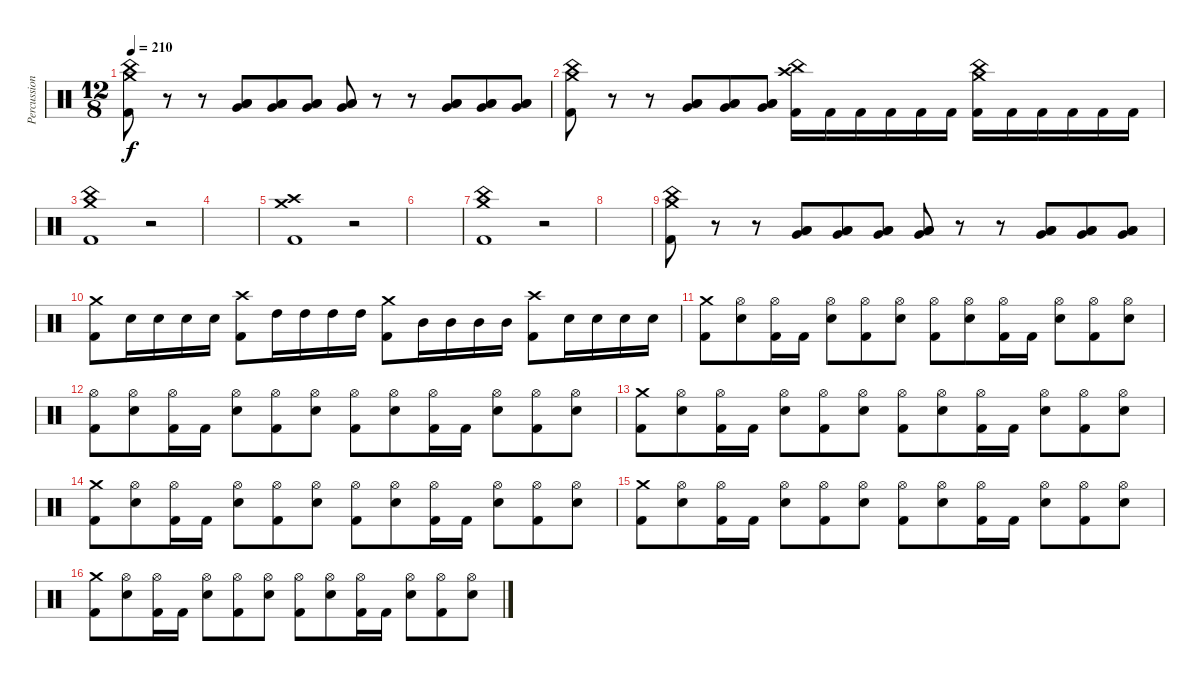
\track ("Percussion" "Percussion") {instrument percussion}
\staff {score}
\articulation defaults
\ts (12 8)
\tempo 210
\clef neutral
\ks c
("China (hit)" "Crash medium (hit)" "Kick (hit) 2").8{dy f} r.8 r.8 ("Low Tom (hit)" "Low Floor Tom (hit)" "Very Low Tom (hit)").8 ("Low Tom (hit)" "Low Floor Tom (hit)" "Very Low Tom (hit)").8 ("Low Tom (hit)" "Low Floor Tom (hit)" "Very Low Tom (hit)").8 ("Low Tom (hit)" "Low Floor Tom (hit)" "Very Low Tom (hit)").8 r.8 r.8 ("Low Tom (hit)" "Low Floor Tom (hit)" "Very Low Tom (hit)").8 ("Low Tom (hit)" "Low Floor Tom (hit)" "Very Low Tom (hit)").8 ("Low Tom (hit)" "Low Floor Tom (hit)" "Very Low Tom (hit)").8 |
("China (hit)" "Crash medium (hit)" "Kick (hit) 2").8 r.8 r.8 ("Low Tom (hit)" "Low Floor Tom (hit)" "Very Low Tom (hit)").8 ("Low Tom (hit)" "Low Floor Tom (hit)" "Very Low Tom (hit)").8 ("Low Tom (hit)" "Low Floor Tom (hit)" "Very Low Tom (hit)").8 ("Crash high (hit)" "China (hit)" "Kick (hit) 2").16 "Kick (hit) 2".16 "Kick (hit) 2".16 "Kick (hit) 2".16 "Kick (hit) 2".16 "Kick (hit) 2".16 ("Crash medium (hit)" "China (hit)" "Kick (hit) 2").16 "Kick (hit) 2".16 "Kick (hit) 2".16 "Kick (hit) 2".16 "Kick (hit) 2".16 "Kick (hit) 2".16 |
("China (hit)" "Crash medium (hit)" "Kick (hit) 2").1 r.2 |
|
("Crash high (hit)" "Crash medium (hit)" "Kick (hit) 2").1 r.2 |
|
("China (hit)" "Crash medium (hit)" "Kick (hit) 2").1 r.2 |
|
("China (hit)" "Crash medium (hit)" "Kick (hit) 2").8 r.8 r.8 ("Low Floor Tom (hit)" "Very Low Tom (hit)" "Low Tom (hit)").8 ("Low Floor Tom (hit)" "Very Low Tom (hit)" "Low Tom (hit)").8 ("Low Floor Tom (hit)" "Very Low Tom (hit)" "Low Tom (hit)").8 ("Low Floor Tom (hit)" "Very Low Tom (hit)" "Low Tom (hit)").8 r.8 r.8 ("Low Floor Tom (hit)" "Very Low Tom (hit)" "Low Tom (hit)").8 ("Low Floor Tom (hit)" "Very Low Tom (hit)" "Low Tom (hit)").8 ("Low Floor Tom (hit)" "Very Low Tom (hit)" "Low Tom (hit)").8 |
("Crash medium (hit)" "Kick (hit) 2").8 "Electric Snare (hit)".16 "Electric Snare (hit)".16 "Electric Snare (hit)".16 "Electric Snare (hit)".16 ("Crash high (hit)" "Kick (hit) 2").8 "High Tom (hit)".16 "High Tom (hit)".16 "High Tom (hit)".16 "High Tom (hit)".16 ("Crash medium (hit)" "Kick (hit) 2").8 "Mid Tom (hit)".16 "Mid Tom (hit)".16 "Mid Tom (hit)".16 "Mid Tom (hit)".16 ("Crash high (hit)" "Kick (hit) 2").8 "Electric Snare (hit)".16 "Electric Snare (hit)".16 "Electric Snare (hit)".16 "Electric Snare (hit)".16 |
("Crash medium (hit)" "Kick (hit) 2").8 ("Hi-Hat (open)" "Electric Snare (hit)").8 ("Hi-Hat (open)" "Kick (hit) 2").16 "Kick (hit) 2".16 ("Hi-Hat (open)" "Electric Snare (hit)").8 ("Hi-Hat (open)" "Kick (hit) 2").8 ("Hi-Hat (open)" "Electric Snare (hit)").8 ("Hi-Hat (open)" "Kick (hit) 2").8 ("Hi-Hat (open)" "Electric Snare (hit)").8 ("Hi-Hat (open)" "Kick (hit) 2").16 "Kick (hit) 2".16 ("Hi-Hat (open)" "Electric Snare (hit)").8 ("Hi-Hat (open)" "Kick (hit) 2").8 ("Hi-Hat (open)" "Electric Snare (hit)").8 |
("Hi-Hat (open)" "Kick (hit) 2").8 ("Hi-Hat (open)" "Electric Snare (hit)").8 ("Hi-Hat (open)" "Kick (hit) 2").16 "Kick (hit) 2".16 ("Hi-Hat (open)" "Electric Snare (hit)").8 ("Hi-Hat (open)" "Kick (hit) 2").8 ("Hi-Hat (open)" "Electric Snare (hit)").8 ("Hi-Hat (open)" "Kick (hit) 2").8 ("Hi-Hat (open)" "Electric Snare (hit)").8 ("Hi-Hat (open)" "Kick (hit) 2").16 "Kick (hit) 2".16 ("Hi-Hat (open)" "Electric Snare (hit)").8 ("Hi-Hat (open)" "Kick (hit) 2").8 ("Hi-Hat (open)" "Electric Snare (hit)").8 |
("Crash medium (hit)" "Kick (hit) 2").8 ("Hi-Hat (open)" "Electric Snare (hit)").8 ("Hi-Hat (open)" "Kick (hit) 2").16 "Kick (hit) 2".16 ("Hi-Hat (open)" "Electric Snare (hit)").8 ("Hi-Hat (open)" "Kick (hit) 2").8 ("Hi-Hat (open)" "Electric Snare (hit)").8 ("Hi-Hat (open)" "Kick (hit) 2").8 ("Hi-Hat (open)" "Electric Snare (hit)").8 ("Hi-Hat (open)" "Kick (hit) 2").16 "Kick (hit) 2".16 ("Hi-Hat (open)" "Electric Snare (hit)").8 ("Hi-Hat (open)" "Kick (hit) 2").8 ("Hi-Hat (open)" "Electric Snare (hit)").8 |
("Crash medium (hit)" "Kick (hit) 2").8 ("Hi-Hat (open)" "Electric Snare (hit)").8 ("Hi-Hat (open)" "Kick (hit) 2").16 "Kick (hit) 2".16 ("Hi-Hat (open)" "Electric Snare (hit)").8 ("Hi-Hat (open)" "Kick (hit) 2").8 ("Hi-Hat (open)" "Electric Snare (hit)").8 ("Hi-Hat (open)" "Kick (hit) 2").8 ("Hi-Hat (open)" "Electric Snare (hit)").8 ("Hi-Hat (open)" "Kick (hit) 2").16 "Kick (hit) 2".16 ("Hi-Hat (open)" "Electric Snare (hit)").8 ("Hi-Hat (open)" "Kick (hit) 2").8 ("Hi-Hat (open)" "Electric Snare (hit)").8 |
("Crash medium (hit)" "Kick (hit) 2").8 ("Hi-Hat (open)" "Electric Snare (hit)").8 ("Hi-Hat (open)" "Kick (hit) 2").16 "Kick (hit) 2".16 ("Hi-Hat (open)" "Electric Snare (hit)").8 ("Hi-Hat (open)" "Kick (hit) 2").8 ("Hi-Hat (open)" "Electric Snare (hit)").8 ("Hi-Hat (open)" "Kick (hit) 2").8 ("Hi-Hat (open)" "Electric Snare (hit)").8 ("Hi-Hat (open)" "Kick (hit) 2").16 "Kick (hit) 2".16 ("Hi-Hat (open)" "Electric Snare (hit)").8 ("Hi-Hat (open)" "Kick (hit) 2").8 ("Hi-Hat (open)" "Electric Snare (hit)").8 |
("Crash medium (hit)" "Kick (hit) 2").8 ("Hi-Hat (open)" "Electric Snare (hit)").8 ("Hi-Hat (open)" "Kick (hit) 2").16 "Kick (hit) 2".16 ("Hi-Hat (open)" "Electric Snare (hit)").8 ("Hi-Hat (open)" "Kick (hit) 2").8 ("Hi-Hat (open)" "Electric Snare (hit)").8 ("Hi-Hat (open)" "Kick (hit) 2").8 ("Hi-Hat (open)" "Electric Snare (hit)").8 ("Hi-Hat (open)" "Kick (hit) 2").16 "Kick (hit) 2".16 ("Hi-Hat (open)" "Electric Snare (hit)").8 ("Hi-Hat (open)" "Kick (hit) 2").8 ("Hi-Hat (open)" "Electric Snare (hit)").8
